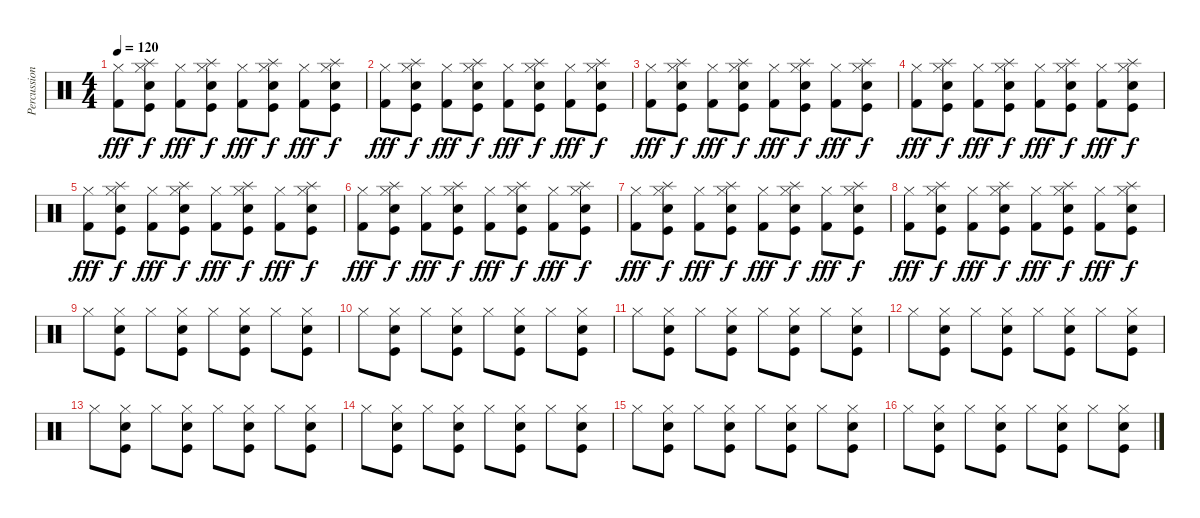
\track ("Percussion-Alex" "Percussion") {instrument percussion}
\staff {score}
\articulation defaults
\ts (4 4)
\tempo 120
\clef neutral
\ks c
("Hi-Hat (closed)" "Kick (hit) 2").8{dy fff} ("Splash (hit)" "Snare (hit) 2" "Hi-Hat (closed)" "Kick (hit)").8{dy f} ("Hi-Hat (closed)" "Kick (hit) 2").8{dy fff} ("Splash (hit)" "Snare (hit) 2" "Hi-Hat (closed)" "Kick (hit)").8{dy f} ("Hi-Hat (closed)" "Kick (hit) 2").8{dy fff} ("Splash (hit)" "Snare (hit) 2" "Hi-Hat (closed)" "Kick (hit)").8{dy f} ("Hi-Hat (closed)" "Kick (hit) 2").8{dy fff} ("Splash (hit)" "Snare (hit) 2" "Hi-Hat (closed)" "Kick (hit)").8{dy f} |
("Hi-Hat (closed)" "Kick (hit) 2").8{dy fff} ("Splash (hit)" "Snare (hit) 2" "Hi-Hat (closed)" "Kick (hit)").8{dy f} ("Hi-Hat (closed)" "Kick (hit) 2").8{dy fff} ("Splash (hit)" "Snare (hit) 2" "Hi-Hat (closed)" "Kick (hit)").8{dy f} ("Hi-Hat (closed)" "Kick (hit) 2").8{dy fff} ("Splash (hit)" "Snare (hit) 2" "Hi-Hat (closed)" "Kick (hit)").8{dy f} ("Hi-Hat (closed)" "Kick (hit) 2").8{dy fff} ("Splash (hit)" "Snare (hit) 2" "Hi-Hat (closed)" "Kick (hit)").8{dy f} |
("Hi-Hat (closed)" "Kick (hit) 2").8{dy fff} ("Splash (hit)" "Snare (hit) 2" "Hi-Hat (closed)" "Kick (hit)").8{dy f} ("Hi-Hat (closed)" "Kick (hit) 2").8{dy fff} ("Splash (hit)" "Snare (hit) 2" "Hi-Hat (closed)" "Kick (hit)").8{dy f} ("Hi-Hat (closed)" "Kick (hit) 2").8{dy fff} ("Splash (hit)" "Snare (hit) 2" "Hi-Hat (closed)" "Kick (hit)").8{dy f} ("Hi-Hat (closed)" "Kick (hit) 2").8{dy fff} ("Splash (hit)" "Snare (hit) 2" "Hi-Hat (closed)" "Kick (hit)").8{dy f} |
("Hi-Hat (closed)" "Kick (hit) 2").8{dy fff} ("Splash (hit)" "Snare (hit) 2" "Hi-Hat (closed)" "Kick (hit)").8{dy f} ("Hi-Hat (closed)" "Kick (hit) 2").8{dy fff} ("Splash (hit)" "Snare (hit) 2" "Hi-Hat (closed)" "Kick (hit)").8{dy f} ("Hi-Hat (closed)" "Kick (hit) 2").8{dy fff} ("Splash (hit)" "Snare (hit) 2" "Hi-Hat (closed)" "Kick (hit)").8{dy f} ("Hi-Hat (closed)" "Kick (hit) 2").8{dy fff} ("Splash (hit)" "Snare (hit) 2" "Hi-Hat (closed)" "Kick (hit)").8{dy f} |
("Hi-Hat (closed)" "Kick (hit) 2").8{dy fff} ("Splash (hit)" "Snare (hit) 2" "Hi-Hat (closed)" "Kick (hit)").8{dy f} ("Hi-Hat (closed)" "Kick (hit) 2").8{dy fff} ("Splash (hit)" "Snare (hit) 2" "Hi-Hat (closed)" "Kick (hit)").8{dy f} ("Hi-Hat (closed)" "Kick (hit) 2").8{dy fff} ("Splash (hit)" "Snare (hit) 2" "Hi-Hat (closed)" "Kick (hit)").8{dy f} ("Hi-Hat (closed)" "Kick (hit) 2").8{dy fff} ("Splash (hit)" "Snare (hit) 2" "Hi-Hat (closed)" "Kick (hit)").8{dy f} |
("Hi-Hat (closed)" "Kick (hit) 2").8{dy fff} ("Splash (hit)" "Snare (hit) 2" "Hi-Hat (closed)" "Kick (hit)").8{dy f} ("Hi-Hat (closed)" "Kick (hit) 2").8{dy fff} ("Splash (hit)" "Snare (hit) 2" "Hi-Hat (closed)" "Kick (hit)").8{dy f} ("Hi-Hat (closed)" "Kick (hit) 2").8{dy fff} ("Splash (hit)" "Snare (hit) 2" "Hi-Hat (closed)" "Kick (hit)").8{dy f} ("Hi-Hat (closed)" "Kick (hit) 2").8{dy fff} ("Splash (hit)" "Snare (hit) 2" "Hi-Hat (closed)" "Kick (hit)").8{dy f} |
("Hi-Hat (closed)" "Kick (hit) 2").8{dy fff} ("Splash (hit)" "Snare (hit) 2" "Hi-Hat (closed)" "Kick (hit)").8{dy f} ("Hi-Hat (closed)" "Kick (hit) 2").8{dy fff} ("Splash (hit)" "Snare (hit) 2" "Hi-Hat (closed)" "Kick (hit)").8{dy f} ("Hi-Hat (closed)" "Kick (hit) 2").8{dy fff} ("Splash (hit)" "Snare (hit) 2" "Hi-Hat (closed)" "Kick (hit)").8{dy f} ("Hi-Hat (closed)" "Kick (hit) 2").8{dy fff} ("Splash (hit)" "Snare (hit) 2" "Hi-Hat (closed)" "Kick (hit)").8{dy f} |
("Hi-Hat (closed)" "Kick (hit) 2").8{dy fff} ("Splash (hit)" "Snare (hit) 2" "Hi-Hat (closed)" "Kick (hit)").8{dy f} ("Hi-Hat (closed)" "Kick (hit) 2").8{dy fff} ("Splash (hit)" "Snare (hit) 2" "Hi-Hat (closed)" "Kick (hit)").8{dy f} ("Hi-Hat (closed)" "Kick (hit) 2").8{dy fff} ("Splash (hit)" "Snare (hit) 2" "Hi-Hat (closed)" "Kick (hit)").8{dy f} ("Hi-Hat (closed)" "Kick (hit) 2").8{dy fff} ("Splash (hit)" "Snare (hit) 2" "Hi-Hat (closed)" "Kick (hit)").8{dy f} |
"Hi-Hat (closed)".8 ("Snare (hit) 2" "Hi-Hat (closed)" "Kick (hit)").8 "Hi-Hat (closed)".8 ("Snare (hit) 2" "Hi-Hat (closed)" "Kick (hit)").8 "Hi-Hat (closed)".8 ("Snare (hit) 2" "Hi-Hat (closed)" "Kick (hit)").8 "Hi-Hat (closed)".8 ("Snare (hit) 2" "Hi-Hat (closed)" "Kick (hit)").8 |
"Hi-Hat (closed)".8 ("Snare (hit) 2" "Hi-Hat (closed)" "Kick (hit)").8 "Hi-Hat (closed)".8 ("Snare (hit) 2" "Hi-Hat (closed)" "Kick (hit)").8 "Hi-Hat (closed)".8 ("Snare (hit) 2" "Hi-Hat (closed)" "Kick (hit)").8 "Hi-Hat (closed)".8 ("Snare (hit) 2" "Hi-Hat (closed)" "Kick (hit)").8 |
"Hi-Hat (closed)".8 ("Snare (hit) 2" "Hi-Hat (closed)" "Kick (hit)").8 "Hi-Hat (closed)".8 ("Snare (hit) 2" "Hi-Hat (closed)" "Kick (hit)").8 "Hi-Hat (closed)".8 ("Snare (hit) 2" "Hi-Hat (closed)" "Kick (hit)").8 "Hi-Hat (closed)".8 ("Snare (hit) 2" "Hi-Hat (closed)" "Kick (hit)").8 |
"Hi-Hat (closed)".8 ("Snare (hit) 2" "Hi-Hat (closed)" "Kick (hit)").8 "Hi-Hat (closed)".8 ("Snare (hit) 2" "Hi-Hat (closed)" "Kick (hit)").8 "Hi-Hat (closed)".8 ("Snare (hit) 2" "Hi-Hat (closed)" "Kick (hit)").8 "Hi-Hat (closed)".8 ("Snare (hit) 2" "Hi-Hat (closed)" "Kick (hit)").8 |
"Hi-Hat (closed)".8 ("Snare (hit) 2" "Hi-Hat (closed)" "Kick (hit)").8 "Hi-Hat (closed)".8 ("Snare (hit) 2" "Hi-Hat (closed)" "Kick (hit)").8 "Hi-Hat (closed)".8 ("Snare (hit) 2" "Hi-Hat (closed)" "Kick (hit)").8 "Hi-Hat (closed)".8 ("Snare (hit) 2" "Hi-Hat (closed)" "Kick (hit)").8 |
"Hi-Hat (closed)".8 ("Snare (hit) 2" "Hi-Hat (closed)" "Kick (hit)").8 "Hi-Hat (closed)".8 ("Snare (hit) 2" "Hi-Hat (closed)" "Kick (hit)").8 "Hi-Hat (closed)".8 ("Snare (hit) 2" "Hi-Hat (closed)" "Kick (hit)").8 "Hi-Hat (closed)".8 ("Snare (hit) 2" "Hi-Hat (closed)" "Kick (hit)").8 |
"Hi-Hat (closed)".8 ("Snare (hit) 2" "Hi-Hat (closed)" "Kick (hit)").8 "Hi-Hat (closed)".8 ("Snare (hit) 2" "Hi-Hat (closed)" "Kick (hit)").8 "Hi-Hat (closed)".8 ("Snare (hit) 2" "Hi-Hat (closed)" "Kick (hit)").8 "Hi-Hat (closed)".8 ("Snare (hit) 2" "Hi-Hat (closed)" "Kick (hit)").8 |
"Hi-Hat (closed)".8 ("Snare (hit) 2" "Hi-Hat (closed)" "Kick (hit)").8 "Hi-Hat (closed)".8 ("Snare (hit) 2" "Hi-Hat (closed)" "Kick (hit)").8 "Hi-Hat (closed)".8 ("Snare (hit) 2" "Hi-Hat (closed)" "Kick (hit)").8 "Hi-Hat (closed)".8 ("Snare (hit) 2" "Hi-Hat (closed)" "Kick (hit)").8
